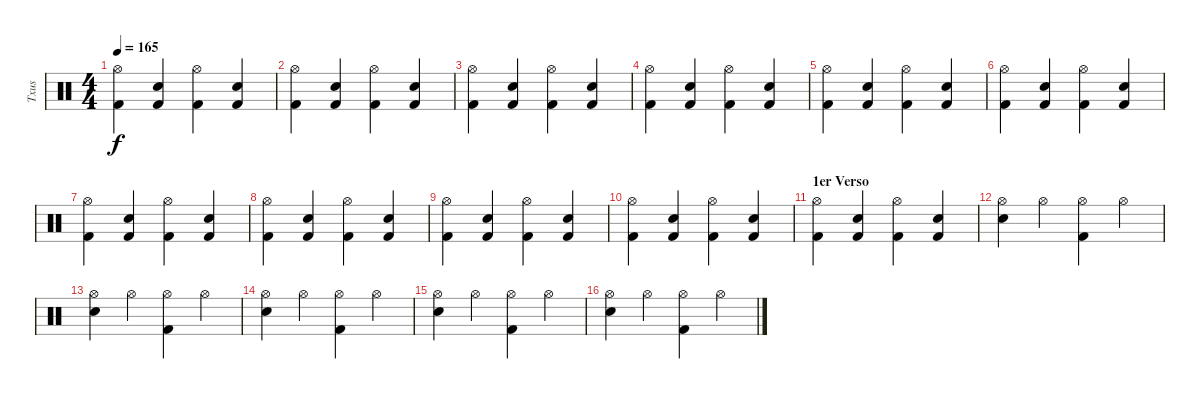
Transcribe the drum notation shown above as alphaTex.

\track ("Txus" "Txus") {instrument percussion}
\staff {score}
\articulation defaults
\ts (4 4)
\tempo 165
\clef neutral
\ks c
("Hi-Hat (open)" "Kick (hit) 2").4{dy f} ("Snare (hit) 2" "Kick (hit) 2").4 ("Hi-Hat (open)" "Kick (hit) 2").4 ("Snare (hit) 2" "Kick (hit) 2").4 |
("Hi-Hat (open)" "Kick (hit) 2").4 ("Snare (hit) 2" "Kick (hit) 2").4 ("Hi-Hat (open)" "Kick (hit) 2").4 ("Snare (hit) 2" "Kick (hit) 2").4 |
("Hi-Hat (open)" "Kick (hit) 2").4 ("Snare (hit) 2" "Kick (hit) 2").4 ("Hi-Hat (open)" "Kick (hit) 2").4 ("Snare (hit) 2" "Kick (hit) 2").4 |
("Hi-Hat (open)" "Kick (hit) 2").4 ("Snare (hit) 2" "Kick (hit) 2").4 ("Hi-Hat (open)" "Kick (hit) 2").4 ("Snare (hit) 2" "Kick (hit) 2").4 |
("Hi-Hat (open)" "Kick (hit) 2").4 ("Snare (hit) 2" "Kick (hit) 2").4 ("Hi-Hat (open)" "Kick (hit) 2").4 ("Snare (hit) 2" "Kick (hit) 2").4 |
("Hi-Hat (open)" "Kick (hit) 2").4 ("Snare (hit) 2" "Kick (hit) 2").4 ("Hi-Hat (open)" "Kick (hit) 2").4 ("Snare (hit) 2" "Kick (hit) 2").4 |
("Hi-Hat (open)" "Kick (hit) 2").4 ("Snare (hit) 2" "Kick (hit) 2").4 ("Hi-Hat (open)" "Kick (hit) 2").4 ("Snare (hit) 2" "Kick (hit) 2").4 |
("Hi-Hat (open)" "Kick (hit) 2").4 ("Snare (hit) 2" "Kick (hit) 2").4 ("Hi-Hat (open)" "Kick (hit) 2").4 ("Snare (hit) 2" "Kick (hit) 2").4 |
("Hi-Hat (open)" "Kick (hit) 2").4 ("Snare (hit) 2" "Kick (hit) 2").4 ("Hi-Hat (open)" "Kick (hit) 2").4 ("Snare (hit) 2" "Kick (hit) 2").4 |
("Hi-Hat (open)" "Kick (hit) 2").4 ("Snare (hit) 2" "Kick (hit) 2").4 ("Hi-Hat (open)" "Kick (hit) 2").4 ("Snare (hit) 2" "Kick (hit) 2").4 |
\section ("" "1er Verso")
("Hi-Hat (open)" "Kick (hit) 2").4 ("Snare (hit) 2" "Kick (hit) 2").4 ("Hi-Hat (open)" "Kick (hit) 2").4 ("Snare (hit) 2" "Kick (hit) 2").4 |
("Snare (hit) 2" "Hi-Hat (open)").4 "Hi-Hat (open)".4 ("Hi-Hat (open)" "Kick (hit) 2").4 "Hi-Hat (open)".4 |
("Snare (hit) 2" "Hi-Hat (open)").4 "Hi-Hat (open)".4 ("Hi-Hat (open)" "Kick (hit) 2").4 "Hi-Hat (open)".4 |
("Snare (hit) 2" "Hi-Hat (open)").4 "Hi-Hat (open)".4 ("Hi-Hat (open)" "Kick (hit) 2").4 "Hi-Hat (open)".4 |
("Snare (hit) 2" "Hi-Hat (open)").4 "Hi-Hat (open)".4 ("Hi-Hat (open)" "Kick (hit) 2").4 "Hi-Hat (open)".4 |
("Snare (hit) 2" "Hi-Hat (open)").4 "Hi-Hat (open)".4 ("Hi-Hat (open)" "Kick (hit) 2").4 "Hi-Hat (open)".4
